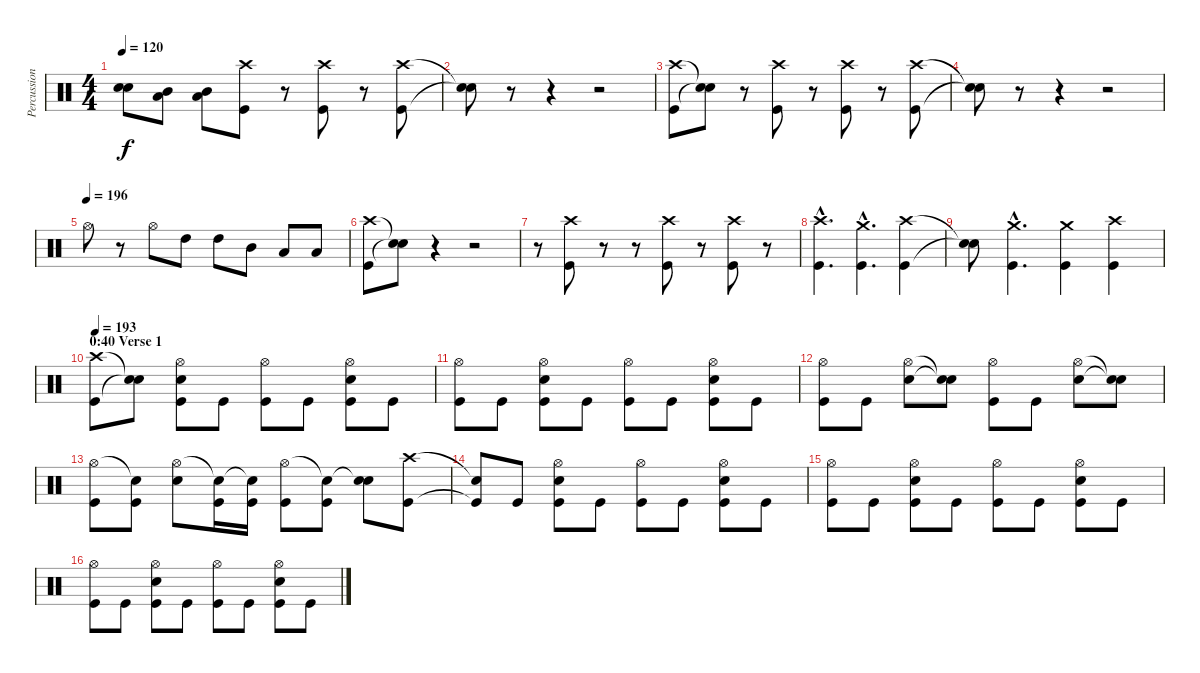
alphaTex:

\track ("Percussion" "Percussion") {instrument percussion}
\staff {score}
\articulation defaults
\ts (4 4)
\tempo 120
\clef neutral
\ks c
("Snare (hit)"{t} "Snare (hit)"{t}).8{dy f} ("Mid Tom (hit)" "Low Tom (hit)").8 ("Mid Tom (hit)" "Low Tom (hit)").8 ("Crash high (hit)" "Kick (hit)").8 r.8 ("Crash high (hit)" "Kick (hit)").8 r.8 ("Crash high (hit)" "Kick (hit)").8 |
("Snare (hit)"{t} "Snare (hit)"{t}).8 r.8 r.4 r.2 |
("Crash high (hit)" "Kick (hit)").8 ("Snare (hit)"{t} "Snare (hit)"{t}).8 r.8 ("Crash high (hit)" "Kick (hit)").8 r.8 ("Crash high (hit)" "Kick (hit)").8 r.8 ("Crash high (hit)" "Kick (hit)").8 |
("Snare (hit)"{t} "Snare (hit)"{t}).8 r.8 r.4 r.2 |
\tempo (196)
"Hi-Hat (open)".8 r.8 "Hi-Hat (open)".8 "High Tom (hit)".8 "High Tom (hit)".8 "Mid Tom (hit)".8 "Low Tom (hit)".8 "Low Tom (hit)".8 |
("Crash high (hit)" "Kick (hit)").8 ("Snare (hit)"{t} "Snare (hit)"{t}).8 r.4 r.2 |
r.8 ("Crash high (hit)" "Kick (hit)").8 r.8 r.8 ("Crash high (hit)" "Kick (hit)").8 r.8 ("Crash high (hit)" "Kick (hit)").8 r.8 |
("Crash high (hit)"{hac} "Kick (hit)"{hac}).4{d} ("Crash medium (hit)"{hac} "Kick (hit)"{hac}).4{d} ("Crash high (hit)" "Kick (hit)").4 |
("Snare (hit)"{t} "Snare (hit)"{t}).8 ("Crash medium (hit)"{hac} "Kick (hit)"{hac}).4{d} ("Crash medium (hit)" "Kick (hit)").4 ("Crash high (hit)" "Kick (hit)").4 |
\section ("" "0:40 Verse 1")
\tempo 193
("Crash high (hit)" "Kick (hit)").8 ("Snare (hit)"{t} "Snare (hit)"{t}).8 ("Hi-Hat (open)" "Snare (hit) 2" "Kick (hit)").8 "Kick (hit)".8 ("Hi-Hat (open)" "Kick (hit)").8 "Kick (hit)".8 ("Hi-Hat (open)" "Snare (hit) 2" "Kick (hit)").8 "Kick (hit)".8 |
("Hi-Hat (open)" "Kick (hit)").8 "Kick (hit)".8 ("Hi-Hat (open)" "Snare (hit) 2" "Kick (hit)").8 "Kick (hit)".8 ("Hi-Hat (open)" "Kick (hit)").8 "Kick (hit)".8 ("Hi-Hat (open)" "Snare (hit) 2" "Kick (hit)").8 "Kick (hit)".8 |
("Hi-Hat (open)" "Kick (hit)").8 "Kick (hit)".8 ("Hi-Hat (open)" "Snare (hit) 2").8 ("Snare (hit)"{t} "Snare (hit)"{t}).8 ("Hi-Hat (open)" "Kick (hit)").8 "Kick (hit)".8 ("Hi-Hat (open)" "Snare (hit) 2").8 ("Snare (hit)"{t} "Snare (hit)"{t}).8 |
("Hi-Hat (open)" "Kick (hit)").8 ("Snare (hit)"{t} "Kick (hit)").8 ("Hi-Hat (open)" "Snare (hit) 2").8 ("Snare (hit)"{t} "Kick (hit)").16 ("Snare (hit)"{t} "Kick (hit)").16 ("Hi-Hat (open)" "Kick (hit)").8 ("Snare (hit)"{t} "Kick (hit)").8 ("Snare (hit)"{t} "Snare (hit) 2").8 ("Crash high (hit)" "Kick (hit)").8 |
("Snare (hit)"{t} "Kick (hit)"{t}).8 "Kick (hit)".8 ("Hi-Hat (open)" "Snare (hit) 2" "Kick (hit)").8 "Kick (hit)".8 ("Hi-Hat (open)" "Kick (hit)").8 "Kick (hit)".8 ("Hi-Hat (open)" "Snare (hit) 2" "Kick (hit)").8 "Kick (hit)".8 |
("Hi-Hat (open)" "Kick (hit)").8 "Kick (hit)".8 ("Hi-Hat (open)" "Snare (hit) 2" "Kick (hit)").8 "Kick (hit)".8 ("Hi-Hat (open)" "Kick (hit)").8 "Kick (hit)".8 ("Hi-Hat (open)" "Snare (hit) 2" "Kick (hit)").8 "Kick (hit)".8 |
("Hi-Hat (open)" "Kick (hit)").8 "Kick (hit)".8 ("Hi-Hat (open)" "Snare (hit) 2" "Kick (hit)").8 "Kick (hit)".8 ("Hi-Hat (open)" "Kick (hit)").8 "Kick (hit)".8 ("Hi-Hat (open)" "Snare (hit) 2" "Kick (hit)").8 "Kick (hit)".8
